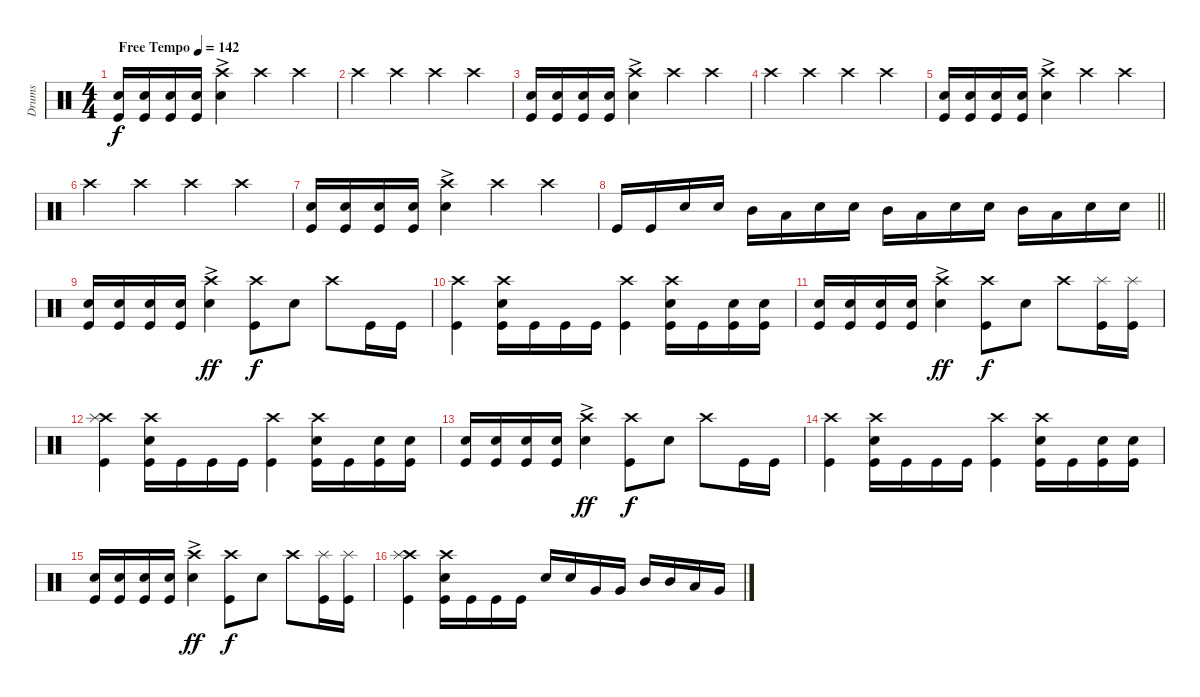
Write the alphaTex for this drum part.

\track ("Drums" "Drums") {instrument percussion}
\staff {score}
\articulation defaults
\ts (4 4)
\tempo (142 "Free Tempo")
\clef neutral
\ks c
("Snare (hit) 2" "Kick (hit)").16{dy f} ("Snare (hit) 2" "Kick (hit)").16 ("Snare (hit) 2" "Kick (hit)").16 ("Snare (hit) 2" "Kick (hit)").16 ("Crash high (hit)"{ac} "Snare (hit) 2").4 "Crash high (hit)".4 "Crash high (hit)".4 |
"Crash high (hit)".4 "Crash high (hit)".4 "Crash high (hit)".4 "Crash high (hit)".4 |
("Snare (hit) 2" "Kick (hit)").16 ("Snare (hit) 2" "Kick (hit)").16 ("Snare (hit) 2" "Kick (hit)").16 ("Snare (hit) 2" "Kick (hit)").16 ("Crash high (hit)"{ac} "Snare (hit) 2").4 "Crash high (hit)".4 "Crash high (hit)".4 |
"Crash high (hit)".4 "Crash high (hit)".4 "Crash high (hit)".4 "Crash high (hit)".4 |
("Snare (hit) 2" "Kick (hit)").16 ("Snare (hit) 2" "Kick (hit)").16 ("Snare (hit) 2" "Kick (hit)").16 ("Snare (hit) 2" "Kick (hit)").16 ("Crash high (hit)"{ac} "Snare (hit) 2").4 "Crash high (hit)".4 "Crash high (hit)".4 |
"Crash high (hit)".4 "Crash high (hit)".4 "Crash high (hit)".4 "Crash high (hit)".4 |
("Snare (hit) 2" "Kick (hit)").16 ("Snare (hit) 2" "Kick (hit)").16 ("Snare (hit) 2" "Kick (hit)").16 ("Snare (hit) 2" "Kick (hit)").16 ("Crash high (hit)"{ac} "Snare (hit) 2").4 "Crash high (hit)".4 "Crash high (hit)".4 |
\barLineRight lightlight "Kick (hit)".16 "Kick (hit)".16 "Snare (hit) 2".16 "Snare (hit) 2".16 "Mid Tom (hit)".16 "Low Tom (hit)".16 "Snare (hit) 2".16 "Snare (hit) 2".16 "Mid Tom (hit)".16 "Low Tom (hit)".16 "Snare (hit) 2".16 "Snare (hit) 2".16 "Mid Tom (hit)".16 "Low Tom (hit)".16 "Snare (hit) 2".16 "Snare (hit) 2".16
|
("Snare (hit) 2" "Kick (hit)").16 ("Snare (hit) 2" "Kick (hit)").16 ("Snare (hit) 2" "Kick (hit)").16 ("Snare (hit) 2" "Kick (hit)").16 ("Crash high (hit)"{ac} "Snare (hit) 2").4{dy ff} ("Crash high (hit)" "Kick (hit)").8{dy f} "Snare (hit) 2".8 "Crash high (hit)".8 "Kick (hit)".16 "Kick (hit)".16 |
("Crash high (hit)" "Kick (hit)").4 ("Crash high (hit)" "Snare (hit) 2" "Kick (hit)").16 "Kick (hit)".16 "Kick (hit)".16 "Kick (hit)".16 ("Crash high (hit)" "Kick (hit)").4 ("Crash high (hit)" "Snare (hit) 2" "Kick (hit)").16 "Kick (hit)".16 ("Snare (hit) 2" "Kick (hit)").16 ("Snare (hit) 2" "Kick (hit)").16 |
("Snare (hit) 2" "Kick (hit)").16 ("Snare (hit) 2" "Kick (hit)").16 ("Snare (hit) 2" "Kick (hit)").16 ("Snare (hit) 2" "Kick (hit)").16 ("Crash high (hit)"{ac} "Snare (hit) 2").4{dy ff} ("Crash high (hit)" "Kick (hit)").8{dy f} "Snare (hit) 2".8 "Crash high (hit)".8 ("Splash (hit)" "Kick (hit)").16 ("Splash (hit)" "Kick (hit)").16 |
("Crash high (hit)" "Splash (hit)" "Kick (hit)").4 ("Crash high (hit)" "Snare (hit) 2" "Kick (hit)").16 "Kick (hit)".16 "Kick (hit)".16 "Kick (hit)".16 ("Crash high (hit)" "Kick (hit)").4 ("Crash high (hit)" "Snare (hit) 2" "Kick (hit)").16 "Kick (hit)".16 ("Snare (hit) 2" "Kick (hit)").16 ("Snare (hit) 2" "Kick (hit)").16 |
("Snare (hit) 2" "Kick (hit)").16 ("Snare (hit) 2" "Kick (hit)").16 ("Snare (hit) 2" "Kick (hit)").16 ("Snare (hit) 2" "Kick (hit)").16 ("Crash high (hit)"{ac} "Snare (hit) 2").4{dy ff} ("Crash high (hit)" "Kick (hit)").8{dy f} "Snare (hit) 2".8 "Crash high (hit)".8 "Kick (hit)".16 "Kick (hit)".16 |
("Crash high (hit)" "Kick (hit)").4 ("Crash high (hit)" "Snare (hit) 2" "Kick (hit)").16 "Kick (hit)".16 "Kick (hit)".16 "Kick (hit)".16 ("Crash high (hit)" "Kick (hit)").4 ("Crash high (hit)" "Snare (hit) 2" "Kick (hit)").16 "Kick (hit)".16 ("Snare (hit) 2" "Kick (hit)").16 ("Snare (hit) 2" "Kick (hit)").16 |
("Snare (hit) 2" "Kick (hit)").16 ("Snare (hit) 2" "Kick (hit)").16 ("Snare (hit) 2" "Kick (hit)").16 ("Snare (hit) 2" "Kick (hit)").16 ("Crash high (hit)"{ac} "Snare (hit) 2").4{dy ff} ("Crash high (hit)" "Kick (hit)").8{dy f} "Snare (hit) 2".8 "Crash high (hit)".8 ("Splash (hit)" "Kick (hit)").16 ("Splash (hit)" "Kick (hit)").16 |
("Crash high (hit)" "Splash (hit)" "Kick (hit)").4 ("Crash high (hit)" "Snare (hit) 2" "Kick (hit)").16 "Kick (hit)".16 "Kick (hit)".16 "Kick (hit)".16 "Snare (hit) 2".16 "Snare (hit) 2".16 "Very Low Tom (hit)".16 "Very Low Tom (hit)".16 "Mid Tom (hit)".16 "Mid Tom (hit)".16 "Low Tom (hit)".16 "Very Low Tom (hit)".16
